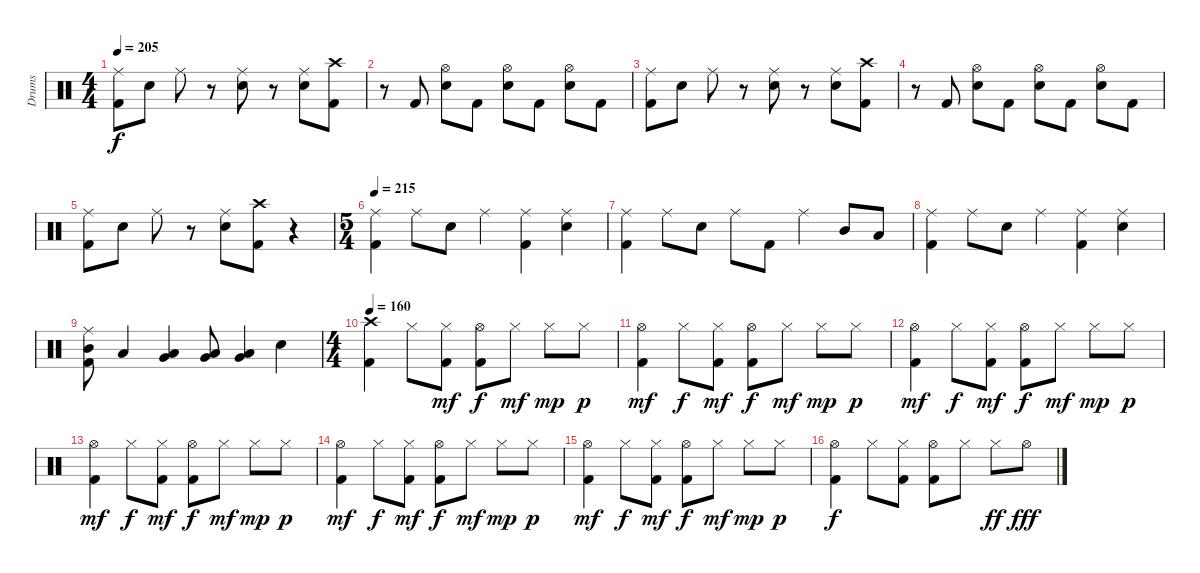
\track ("Drums" "Drums") {instrument percussion}
\staff {score}
\articulation defaults
\ts (4 4)
\tempo 205
\clef neutral
\ks c
("Ride (middle)" "Kick (hit) 2").8{dy f} "Electric Snare (hit)".8 "Ride (middle)".8 r.8 ("Ride (middle)" "Electric Snare (hit)").8 r.8 ("Ride (middle)" "Electric Snare (hit)").8 ("Crash high (hit)" "Kick (hit) 2").8 |
r.8 "Kick (hit) 2".8 ("Hi-Hat (open)" "Electric Snare (hit)").8 "Kick (hit) 2".8 ("Hi-Hat (open)" "Electric Snare (hit)").8 "Kick (hit) 2".8 ("Hi-Hat (open)" "Electric Snare (hit)").8 "Kick (hit) 2".8 |
("Ride (middle)" "Kick (hit) 2").8 "Electric Snare (hit)".8 "Ride (middle)".8 r.8 ("Ride (middle)" "Electric Snare (hit)").8 r.8 ("Ride (middle)" "Electric Snare (hit)").8 ("Crash high (hit)" "Kick (hit) 2").8 |
r.8 "Kick (hit) 2".8 ("Hi-Hat (open)" "Electric Snare (hit)").8 "Kick (hit) 2".8 ("Hi-Hat (open)" "Electric Snare (hit)").8 "Kick (hit) 2".8 ("Hi-Hat (open)" "Electric Snare (hit)").8 "Kick (hit) 2".8 |
("Ride (middle)" "Kick (hit) 2").8 "Electric Snare (hit)".8 "Ride (middle)".8 r.8 ("Ride (middle)" "Electric Snare (hit)").8 ("Crash high (hit)" "Kick (hit) 2").8 r.4 |
\ts (5 4)
\tempo 215
("Ride (middle)" "Kick (hit) 2").4 "Ride (middle)".8 "Electric Snare (hit)".8 "Ride (middle)".4 ("Ride (middle)" "Kick (hit) 2").4 ("Ride (middle)" "Electric Snare (hit)").4 |
("Ride (middle)" "Kick (hit) 2").4 "Ride (middle)".8 "Electric Snare (hit)".8 "Ride (middle)".8 "Kick (hit) 2".8 "Ride (middle)".4 "Mid Tom (hit)".8 "Low Tom (hit)".8 |
("Ride (middle)" "Kick (hit) 2").4 "Ride (middle)".8 "Electric Snare (hit)".8 "Ride (middle)".4 ("Ride (middle)" "Kick (hit) 2").4 ("Ride (middle)" "Electric Snare (hit)").4 |
("Ride (middle)" "Mid Tom (hit)" "Kick (hit) 2").8 "Low Tom (hit)".4 ("Very Low Tom (hit)" "Low Floor Tom (hit)").4 ("Very Low Tom (hit)" "Low Floor Tom (hit)").8 ("Very Low Tom (hit)" "Low Floor Tom (hit)").4 "Electric Snare (hit)".4 |
\ts (4 4)
\tempo 160
("Crash high (hit)" "Kick (hit) 2").4 "Hi-Hat (closed)".8 ("Hi-Hat (closed)" "Kick (hit) 2").8{dy mf} ("Hi-Hat (open)" "Kick (hit) 2").8{dy f} "Hi-Hat (closed)".8{dy mf} "Hi-Hat (closed)".8{dy mp} "Hi-Hat (closed)".8{dy p} |
("Hi-Hat (open)" "Kick (hit) 2").4{dy mf} "Hi-Hat (closed)".8{dy f} ("Hi-Hat (closed)" "Kick (hit) 2").8{dy mf} ("Hi-Hat (open)" "Kick (hit) 2").8{dy f} "Hi-Hat (closed)".8{dy mf} "Hi-Hat (closed)".8{dy mp} "Hi-Hat (closed)".8{dy p} |
("Hi-Hat (open)" "Kick (hit) 2").4{dy mf} "Hi-Hat (closed)".8{dy f} ("Hi-Hat (closed)" "Kick (hit) 2").8{dy mf} ("Hi-Hat (open)" "Kick (hit) 2").8{dy f} "Hi-Hat (closed)".8{dy mf} "Hi-Hat (closed)".8{dy mp} "Hi-Hat (closed)".8{dy p} |
("Hi-Hat (open)" "Kick (hit) 2").4{dy mf} "Hi-Hat (closed)".8{dy f} ("Hi-Hat (closed)" "Kick (hit) 2").8{dy mf} ("Hi-Hat (open)" "Kick (hit) 2").8{dy f} "Hi-Hat (closed)".8{dy mf} "Hi-Hat (closed)".8{dy mp} "Hi-Hat (closed)".8{dy p} |
("Hi-Hat (open)" "Kick (hit) 2").4{dy mf} "Hi-Hat (closed)".8{dy f} ("Hi-Hat (closed)" "Kick (hit) 2").8{dy mf} ("Hi-Hat (open)" "Kick (hit) 2").8{dy f} "Hi-Hat (closed)".8{dy mf} "Hi-Hat (closed)".8{dy mp} "Hi-Hat (closed)".8{dy p} |
("Hi-Hat (open)" "Kick (hit) 2").4{dy mf} "Hi-Hat (closed)".8{dy f} ("Hi-Hat (closed)" "Kick (hit) 2").8{dy mf} ("Hi-Hat (open)" "Kick (hit) 2").8{dy f} "Hi-Hat (closed)".8{dy mf} "Hi-Hat (closed)".8{dy mp} "Hi-Hat (closed)".8{dy p} |
("Hi-Hat (open)" "Kick (hit) 2").4{dy f} "Hi-Hat (closed)".8 ("Hi-Hat (closed)" "Kick (hit) 2").8 ("Hi-Hat (open)" "Kick (hit) 2").8 "Hi-Hat (closed)".8 "Hi-Hat (closed)".8{dy ff} "Hi-Hat (open)".8{dy fff}
